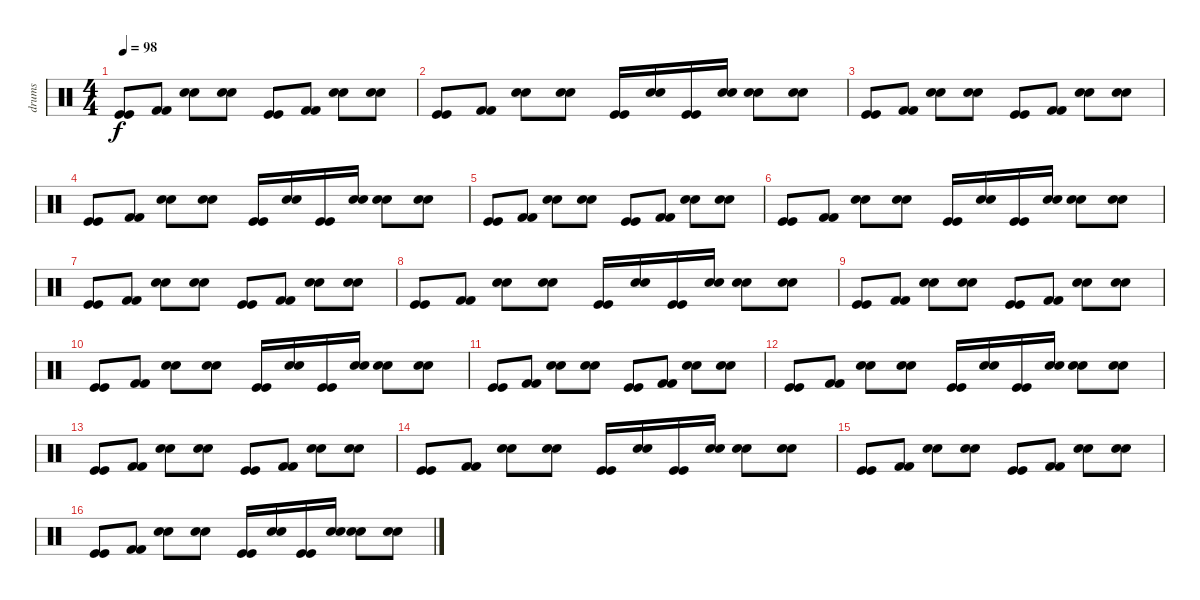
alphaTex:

\track ("drums" "drums") {instrument percussion}
\staff {score}
\articulation defaults
\ts (4 4)
\tempo 98
\clef neutral
\ks c
("Kick (hit)" "Kick (hit)").8{dy f} ("Kick (hit) 2" "Kick (hit) 2").8 ("Snare (hit) 2" "Snare (hit) 2").8 ("Snare (hit) 2" "Snare (hit) 2").8 ("Kick (hit)" "Kick (hit)").8 ("Kick (hit) 2" "Kick (hit) 2").8 ("Snare (hit) 2" "Snare (hit) 2").8 ("Snare (hit) 2" "Snare (hit) 2").8 |
("Kick (hit)" "Kick (hit)").8 ("Kick (hit) 2" "Kick (hit) 2").8 ("Snare (hit) 2" "Snare (hit) 2").8 ("Snare (hit) 2" "Snare (hit) 2").8 ("Kick (hit)" "Kick (hit)").16 ("Electric Snare (hit)" "Electric Snare (hit)").16 ("Kick (hit)" "Kick (hit)").16 ("Electric Snare (hit)" "Electric Snare (hit)").16 ("Snare (hit) 2" "Snare (hit) 2").8 ("Snare (hit) 2" "Snare (hit) 2").8 |
("Kick (hit)" "Kick (hit)").8 ("Kick (hit) 2" "Kick (hit) 2").8 ("Snare (hit) 2" "Snare (hit) 2").8 ("Snare (hit) 2" "Snare (hit) 2").8 ("Kick (hit)" "Kick (hit)").8 ("Kick (hit) 2" "Kick (hit) 2").8 ("Snare (hit) 2" "Snare (hit) 2").8 ("Snare (hit) 2" "Snare (hit) 2").8 |
("Kick (hit)" "Kick (hit)").8 ("Kick (hit) 2" "Kick (hit) 2").8 ("Snare (hit) 2" "Snare (hit) 2").8 ("Snare (hit) 2" "Snare (hit) 2").8 ("Kick (hit)" "Kick (hit)").16 ("Electric Snare (hit)" "Electric Snare (hit)").16 ("Kick (hit)" "Kick (hit)").16 ("Electric Snare (hit)" "Electric Snare (hit)").16 ("Snare (hit) 2" "Snare (hit) 2").8 ("Snare (hit) 2" "Snare (hit) 2").8 |
("Kick (hit)" "Kick (hit)").8 ("Kick (hit) 2" "Kick (hit) 2").8 ("Snare (hit) 2" "Snare (hit) 2").8 ("Snare (hit) 2" "Snare (hit) 2").8 ("Kick (hit)" "Kick (hit)").8 ("Kick (hit) 2" "Kick (hit) 2").8 ("Snare (hit) 2" "Snare (hit) 2").8 ("Snare (hit) 2" "Snare (hit) 2").8 |
("Kick (hit)" "Kick (hit)").8 ("Kick (hit) 2" "Kick (hit) 2").8 ("Snare (hit) 2" "Snare (hit) 2").8 ("Snare (hit) 2" "Snare (hit) 2").8 ("Kick (hit)" "Kick (hit)").16 ("Electric Snare (hit)" "Electric Snare (hit)").16 ("Kick (hit)" "Kick (hit)").16 ("Electric Snare (hit)" "Electric Snare (hit)").16 ("Snare (hit) 2" "Snare (hit) 2").8 ("Snare (hit) 2" "Snare (hit) 2").8 |
("Kick (hit)" "Kick (hit)").8 ("Kick (hit) 2" "Kick (hit) 2").8 ("Snare (hit) 2" "Snare (hit) 2").8 ("Snare (hit) 2" "Snare (hit) 2").8 ("Kick (hit)" "Kick (hit)").8 ("Kick (hit) 2" "Kick (hit) 2").8 ("Snare (hit) 2" "Snare (hit) 2").8 ("Snare (hit) 2" "Snare (hit) 2").8 |
("Kick (hit)" "Kick (hit)").8 ("Kick (hit) 2" "Kick (hit) 2").8 ("Snare (hit) 2" "Snare (hit) 2").8 ("Snare (hit) 2" "Snare (hit) 2").8 ("Kick (hit)" "Kick (hit)").16 ("Electric Snare (hit)" "Electric Snare (hit)").16 ("Kick (hit)" "Kick (hit)").16 ("Electric Snare (hit)" "Electric Snare (hit)").16 ("Snare (hit) 2" "Snare (hit) 2").8 ("Snare (hit) 2" "Snare (hit) 2").8 |
("Kick (hit)" "Kick (hit)").8 ("Kick (hit) 2" "Kick (hit) 2").8 ("Snare (hit) 2" "Snare (hit) 2").8 ("Snare (hit) 2" "Snare (hit) 2").8 ("Kick (hit)" "Kick (hit)").8 ("Kick (hit) 2" "Kick (hit) 2").8 ("Snare (hit) 2" "Snare (hit) 2").8 ("Snare (hit) 2" "Snare (hit) 2").8 |
("Kick (hit)" "Kick (hit)").8 ("Kick (hit) 2" "Kick (hit) 2").8 ("Snare (hit) 2" "Snare (hit) 2").8 ("Snare (hit) 2" "Snare (hit) 2").8 ("Kick (hit)" "Kick (hit)").16 ("Electric Snare (hit)" "Electric Snare (hit)").16 ("Kick (hit)" "Kick (hit)").16 ("Electric Snare (hit)" "Electric Snare (hit)").16 ("Snare (hit) 2" "Snare (hit) 2").8 ("Snare (hit) 2" "Snare (hit) 2").8 |
("Kick (hit)" "Kick (hit)").8 ("Kick (hit) 2" "Kick (hit) 2").8 ("Snare (hit) 2" "Snare (hit) 2").8 ("Snare (hit) 2" "Snare (hit) 2").8 ("Kick (hit)" "Kick (hit)").8 ("Kick (hit) 2" "Kick (hit) 2").8 ("Snare (hit) 2" "Snare (hit) 2").8 ("Snare (hit) 2" "Snare (hit) 2").8 |
("Kick (hit)" "Kick (hit)").8 ("Kick (hit) 2" "Kick (hit) 2").8 ("Snare (hit) 2" "Snare (hit) 2").8 ("Snare (hit) 2" "Snare (hit) 2").8 ("Kick (hit)" "Kick (hit)").16 ("Electric Snare (hit)" "Electric Snare (hit)").16 ("Kick (hit)" "Kick (hit)").16 ("Electric Snare (hit)" "Electric Snare (hit)").16 ("Snare (hit) 2" "Snare (hit) 2").8 ("Snare (hit) 2" "Snare (hit) 2").8 |
("Kick (hit)" "Kick (hit)").8 ("Kick (hit) 2" "Kick (hit) 2").8 ("Snare (hit) 2" "Snare (hit) 2").8 ("Snare (hit) 2" "Snare (hit) 2").8 ("Kick (hit)" "Kick (hit)").8 ("Kick (hit) 2" "Kick (hit) 2").8 ("Snare (hit) 2" "Snare (hit) 2").8 ("Snare (hit) 2" "Snare (hit) 2").8 |
("Kick (hit)" "Kick (hit)").8 ("Kick (hit) 2" "Kick (hit) 2").8 ("Snare (hit) 2" "Snare (hit) 2").8 ("Snare (hit) 2" "Snare (hit) 2").8 ("Kick (hit)" "Kick (hit)").16 ("Electric Snare (hit)" "Electric Snare (hit)").16 ("Kick (hit)" "Kick (hit)").16 ("Electric Snare (hit)" "Electric Snare (hit)").16 ("Snare (hit) 2" "Snare (hit) 2").8 ("Snare (hit) 2" "Snare (hit) 2").8 |
("Kick (hit)" "Kick (hit)").8 ("Kick (hit) 2" "Kick (hit) 2").8 ("Snare (hit) 2" "Snare (hit) 2").8 ("Snare (hit) 2" "Snare (hit) 2").8 ("Kick (hit)" "Kick (hit)").8 ("Kick (hit) 2" "Kick (hit) 2").8 ("Snare (hit) 2" "Snare (hit) 2").8 ("Snare (hit) 2" "Snare (hit) 2").8 |
("Kick (hit)" "Kick (hit)").8 ("Kick (hit) 2" "Kick (hit) 2").8 ("Snare (hit) 2" "Snare (hit) 2").8 ("Snare (hit) 2" "Snare (hit) 2").8 ("Kick (hit)" "Kick (hit)").16 ("Electric Snare (hit)" "Electric Snare (hit)").16 ("Kick (hit)" "Kick (hit)").16 ("Electric Snare (hit)" "Electric Snare (hit)").16 ("Snare (hit) 2" "Snare (hit) 2").8 ("Snare (hit) 2" "Snare (hit) 2").8
